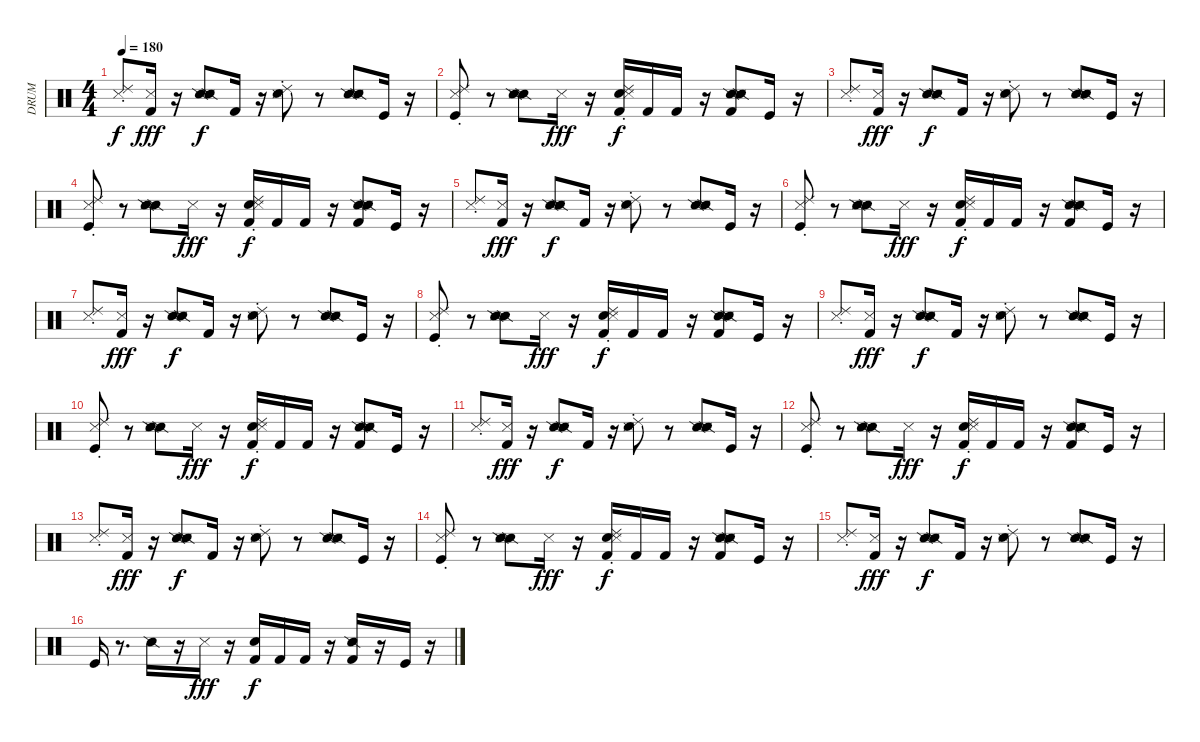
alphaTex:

\track ("DRUM" "DRUM") {instrument percussion}
\staff {score}
\articulation defaults
\ts (4 4)
\tempo 180
\clef neutral
\ks c
("Metronome (hit)" "Ride (choke) 2").8{dy f} ("Snare (side stick) 3" "Kick (hit) 2").16{dy fff} r.16 ("Snare (side stick) 2" "Snare (side stick) 2" "Metronome (hit)").8{dy f} "Kick (hit) 2".16 r.16 ("Snare (hit) 2" "Metronome (hit)" "Ride (choke) 2").8 r.8 ("Snare (side stick) 2" "Snare (side stick) 2" "Metronome (hit)").8 "Kick (hit)".16 r.16 |
("Kick (hit)" "Metronome (hit)" "Ride (choke) 2").8 r.8 ("Snare (side stick) 2" "Snare (side stick) 2" "Metronome (hit)").8 "Snare (side stick) 3".16{dy fff} r.16 ("Kick (hit) 2" "Snare (hit) 2" "Metronome (hit)" "Ride (choke) 2").16{dy f} "Kick (hit) 2".16 "Kick (hit) 2".16 r.16 ("Snare (side stick) 2" "Kick (hit) 2" "Snare (side stick) 2" "Metronome (hit)").8 "Kick (hit)".16 r.16 |
("Metronome (hit)" "Ride (choke) 2").8 ("Snare (side stick) 3" "Kick (hit) 2").16{dy fff} r.16 ("Snare (side stick) 2" "Snare (side stick) 2" "Metronome (hit)").8{dy f} "Kick (hit) 2".16 r.16 ("Snare (hit) 2" "Metronome (hit)" "Ride (choke) 2").8 r.8 ("Snare (side stick) 2" "Snare (side stick) 2" "Metronome (hit)").8 "Kick (hit)".16 r.16 |
("Kick (hit)" "Metronome (hit)" "Ride (choke) 2").8 r.8 ("Snare (side stick) 2" "Snare (side stick) 2" "Metronome (hit)").8 "Snare (side stick) 3".16{dy fff} r.16 ("Kick (hit) 2" "Snare (hit) 2" "Metronome (hit)" "Ride (choke) 2").16{dy f} "Kick (hit) 2".16 "Kick (hit) 2".16 r.16 ("Snare (side stick) 2" "Kick (hit) 2" "Snare (side stick) 2" "Metronome (hit)").8 "Kick (hit)".16 r.16 |
("Metronome (hit)" "Ride (choke) 2").8 ("Snare (side stick) 3" "Kick (hit) 2").16{dy fff} r.16 ("Snare (side stick) 2" "Snare (side stick) 2" "Metronome (hit)").8{dy f} "Kick (hit) 2".16 r.16 ("Snare (hit) 2" "Metronome (hit)" "Ride (choke) 2").8 r.8 ("Snare (side stick) 2" "Snare (side stick) 2" "Metronome (hit)").8 "Kick (hit)".16 r.16 |
("Kick (hit)" "Metronome (hit)" "Ride (choke) 2").8 r.8 ("Snare (side stick) 2" "Snare (side stick) 2" "Metronome (hit)").8 "Snare (side stick) 3".16{dy fff} r.16 ("Kick (hit) 2" "Snare (hit) 2" "Metronome (hit)" "Ride (choke) 2").16{dy f} "Kick (hit) 2".16 "Kick (hit) 2".16 r.16 ("Snare (side stick) 2" "Kick (hit) 2" "Snare (side stick) 2" "Metronome (hit)").8 "Kick (hit)".16 r.16 |
("Metronome (hit)" "Ride (choke) 2").8 ("Snare (side stick) 3" "Kick (hit) 2").16{dy fff} r.16 ("Snare (side stick) 2" "Snare (side stick) 2" "Metronome (hit)").8{dy f} "Kick (hit) 2".16 r.16 ("Snare (hit) 2" "Metronome (hit)" "Ride (choke) 2").8 r.8 ("Snare (side stick) 2" "Snare (side stick) 2" "Metronome (hit)").8 "Kick (hit)".16 r.16 |
("Kick (hit)" "Metronome (hit)" "Ride (choke) 2").8 r.8 ("Snare (side stick) 2" "Snare (side stick) 2" "Metronome (hit)").8 "Snare (side stick) 3".16{dy fff} r.16 ("Kick (hit) 2" "Snare (hit) 2" "Metronome (hit)" "Ride (choke) 2").16{dy f} "Kick (hit) 2".16 "Kick (hit) 2".16 r.16 ("Snare (side stick) 2" "Kick (hit) 2" "Snare (side stick) 2" "Metronome (hit)").8 "Kick (hit)".16 r.16 |
("Metronome (hit)" "Ride (choke) 2").8 ("Snare (side stick) 3" "Kick (hit) 2").16{dy fff} r.16 ("Snare (side stick) 2" "Snare (side stick) 2" "Metronome (hit)").8{dy f} "Kick (hit) 2".16 r.16 ("Snare (hit) 2" "Metronome (hit)" "Ride (choke) 2").8 r.8 ("Snare (side stick) 2" "Snare (side stick) 2" "Metronome (hit)").8 "Kick (hit)".16 r.16 |
("Kick (hit)" "Metronome (hit)" "Ride (choke) 2").8 r.8 ("Snare (side stick) 2" "Snare (side stick) 2" "Metronome (hit)").8 "Snare (side stick) 3".16{dy fff} r.16 ("Kick (hit) 2" "Snare (hit) 2" "Metronome (hit)" "Ride (choke) 2").16{dy f} "Kick (hit) 2".16 "Kick (hit) 2".16 r.16 ("Snare (side stick) 2" "Kick (hit) 2" "Snare (side stick) 2" "Metronome (hit)").8 "Kick (hit)".16 r.16 |
("Metronome (hit)" "Ride (choke) 2").8 ("Snare (side stick) 3" "Kick (hit) 2").16{dy fff} r.16 ("Snare (side stick) 2" "Snare (side stick) 2" "Metronome (hit)").8{dy f} "Kick (hit) 2".16 r.16 ("Snare (hit) 2" "Metronome (hit)" "Ride (choke) 2").8 r.8 ("Snare (side stick) 2" "Snare (side stick) 2" "Metronome (hit)").8 "Kick (hit)".16 r.16 |
("Kick (hit)" "Metronome (hit)" "Ride (choke) 2").8 r.8 ("Snare (side stick) 2" "Snare (side stick) 2" "Metronome (hit)").8 "Snare (side stick) 3".16{dy fff} r.16 ("Kick (hit) 2" "Snare (hit) 2" "Metronome (hit)" "Ride (choke) 2").16{dy f} "Kick (hit) 2".16 "Kick (hit) 2".16 r.16 ("Snare (side stick) 2" "Kick (hit) 2" "Snare (side stick) 2" "Metronome (hit)").8 "Kick (hit)".16 r.16 |
("Metronome (hit)" "Ride (choke) 2").8 ("Snare (side stick) 3" "Kick (hit) 2").16{dy fff} r.16 ("Snare (side stick) 2" "Snare (side stick) 2" "Metronome (hit)").8{dy f} "Kick (hit) 2".16 r.16 ("Snare (hit) 2" "Metronome (hit)" "Ride (choke) 2").8 r.8 ("Snare (side stick) 2" "Snare (side stick) 2" "Metronome (hit)").8 "Kick (hit)".16 r.16 |
("Kick (hit)" "Metronome (hit)" "Ride (choke) 2").8 r.8 ("Snare (side stick) 2" "Snare (side stick) 2" "Metronome (hit)").8 "Snare (side stick) 3".16{dy fff} r.16 ("Kick (hit) 2" "Snare (hit) 2" "Metronome (hit)" "Ride (choke) 2").16{dy f} "Kick (hit) 2".16 "Kick (hit) 2".16 r.16 ("Snare (side stick) 2" "Kick (hit) 2" "Snare (side stick) 2" "Metronome (hit)").8 "Kick (hit)".16 r.16 |
("Metronome (hit)" "Ride (choke) 2").8 ("Snare (side stick) 3" "Kick (hit) 2").16{dy fff} r.16 ("Snare (side stick) 2" "Snare (side stick) 2" "Metronome (hit)").8{dy f} "Kick (hit) 2".16 r.16 ("Snare (hit) 2" "Metronome (hit)" "Ride (choke) 2").8 r.8 ("Snare (side stick) 2" "Snare (side stick) 2" "Metronome (hit)").8 "Kick (hit)".16 r.16 |
"Kick (hit)".16 r.8{d} "Snare (side stick) 2".16 r.16 "Snare (side stick) 3".16{dy fff} r.16 ("Kick (hit) 2" "Snare (hit) 2").16{dy f} "Kick (hit) 2".16 "Kick (hit) 2".16 r.16 ("Snare (side stick) 2" "Kick (hit) 2").16 r.16 "Kick (hit)".16 r.16
